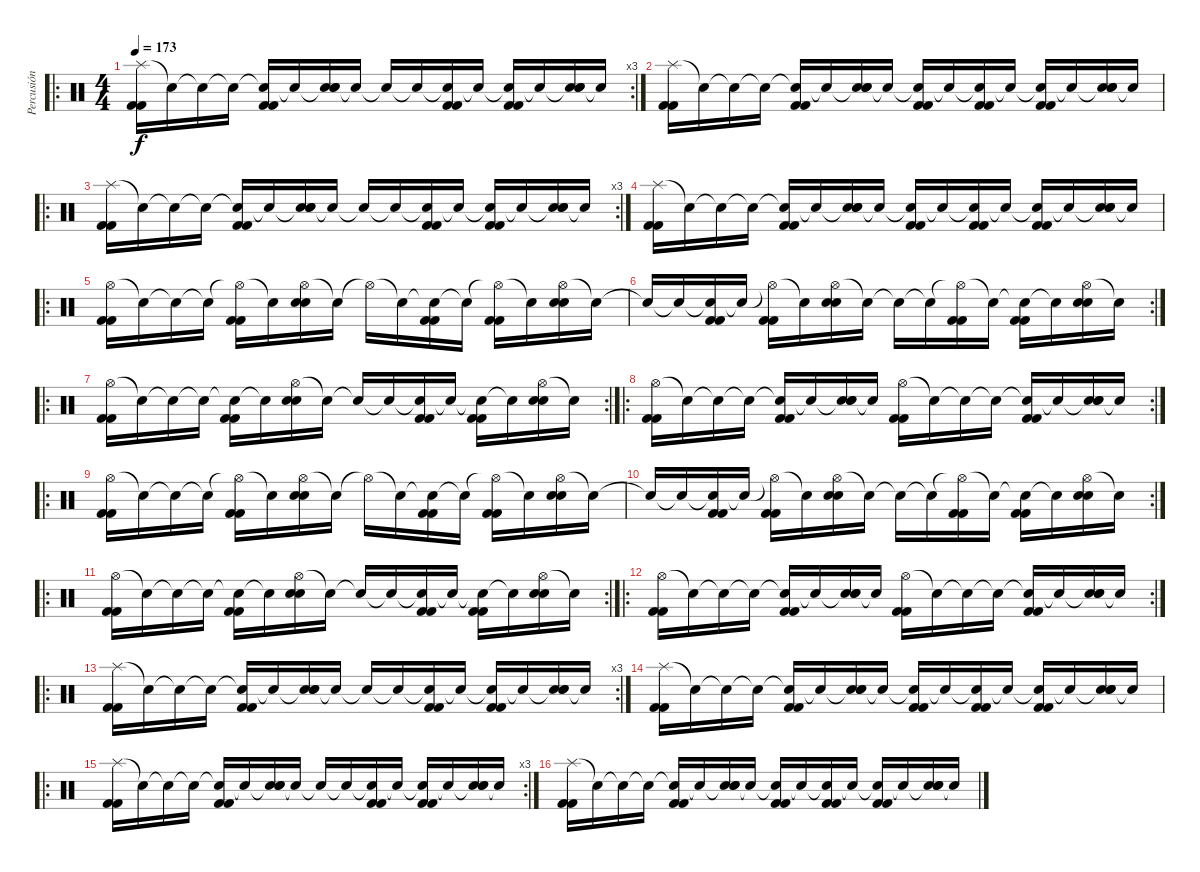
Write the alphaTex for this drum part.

\track ("Percusión" "Percusión") {instrument percussion}
\staff {score}
\articulation defaults
\ro
\rc 3
\ts (4 4)
\tempo 173
\clef neutral
\ks c
("Splash (hit)" "Kick (hit) 2" "Kick (hit) 2").16{dy f} "Snare (hit)"{t}.16 "Snare (hit)"{t}.16 "Snare (hit)"{t}.16 ("Snare (hit)"{t} "Kick (hit) 2" "Kick (hit) 2").16 "Snare (hit)"{t}.16 ("Snare (hit)"{t} "Electric Snare (hit)" "Electric Snare (hit)").16 "Snare (hit)"{t}.16 "Snare (hit)"{t}.16 "Snare (hit)"{t}.16 ("Snare (hit)"{t} "Kick (hit) 2" "Kick (hit) 2").16 "Snare (hit)"{t}.16 ("Snare (hit)"{t} "Kick (hit) 2" "Kick (hit) 2").16 "Snare (hit)"{t}.16 ("Snare (hit)"{t} "Electric Snare (hit)" "Electric Snare (hit)").16 "Snare (hit)"{t}.16 |
("Splash (hit)" "Kick (hit) 2" "Kick (hit) 2").16 "Snare (hit)"{t}.16 "Snare (hit)"{t}.16 "Snare (hit)"{t}.16 ("Snare (hit)"{t} "Kick (hit) 2" "Kick (hit) 2").16 "Snare (hit)"{t}.16 ("Snare (hit)"{t} "Electric Snare (hit)" "Electric Snare (hit)").16 "Snare (hit)"{t}.16 ("Snare (hit)"{t} "Kick (hit) 2" "Kick (hit) 2").16 "Snare (hit)"{t}.16 ("Snare (hit)"{t} "Kick (hit) 2" "Kick (hit) 2").16 "Snare (hit)"{t}.16 ("Snare (hit)"{t} "Kick (hit) 2" "Kick (hit) 2").16 "Snare (hit)"{t}.16 ("Snare (hit)"{t} "Electric Snare (hit)" "Electric Snare (hit)").16 "Snare (hit)"{t}.16 |
\ro
\rc 3
("Splash (hit)" "Kick (hit) 2" "Kick (hit) 2").16 "Snare (hit)"{t}.16 "Snare (hit)"{t}.16 "Snare (hit)"{t}.16 ("Snare (hit)"{t} "Kick (hit) 2" "Kick (hit) 2").16 "Snare (hit)"{t}.16 ("Snare (hit)"{t} "Electric Snare (hit)" "Electric Snare (hit)").16 "Snare (hit)"{t}.16 "Snare (hit)"{t}.16 "Snare (hit)"{t}.16 ("Snare (hit)"{t} "Kick (hit) 2" "Kick (hit) 2").16 "Snare (hit)"{t}.16 ("Snare (hit)"{t} "Kick (hit) 2" "Kick (hit) 2").16 "Snare (hit)"{t}.16 ("Snare (hit)"{t} "Electric Snare (hit)" "Electric Snare (hit)").16 "Snare (hit)"{t}.16 |
("Splash (hit)" "Kick (hit) 2" "Kick (hit) 2").16 "Snare (hit)"{t}.16 "Snare (hit)"{t}.16 "Snare (hit)"{t}.16 ("Snare (hit)"{t} "Kick (hit) 2" "Kick (hit) 2").16 "Snare (hit)"{t}.16 ("Snare (hit)"{t} "Electric Snare (hit)" "Electric Snare (hit)").16 "Snare (hit)"{t}.16 ("Snare (hit)"{t} "Kick (hit) 2" "Kick (hit) 2").16 "Snare (hit)"{t}.16 ("Snare (hit)"{t} "Kick (hit) 2" "Kick (hit) 2").16 "Snare (hit)"{t}.16 ("Snare (hit)"{t} "Kick (hit) 2" "Kick (hit) 2").16 "Snare (hit)"{t}.16 ("Snare (hit)"{t} "Electric Snare (hit)" "Electric Snare (hit)").16 "Snare (hit)"{t}.16 |
\ro
("Hi-Hat (open)" "Kick (hit) 2" "Kick (hit) 2").16 "Snare (hit)"{t}.16 "Snare (hit)"{t}.16 "Snare (hit)"{t}.16 ("Hi-Hat (open)"{t} "Kick (hit) 2" "Kick (hit) 2").16 "Snare (hit)"{t}.16 ("Hi-Hat (open)" "Electric Snare (hit)" "Electric Snare (hit)").16 "Snare (hit)"{t}.16 "Hi-Hat (open)"{t}.16 "Snare (hit)"{t}.16 ("Snare (hit)"{t} "Kick (hit) 2" "Kick (hit) 2").16 "Snare (hit)"{t}.16 ("Hi-Hat (open)"{t} "Kick (hit) 2" "Kick (hit) 2").16 "Snare (hit)"{t}.16 ("Hi-Hat (open)" "Electric Snare (hit)" "Electric Snare (hit)").16 "Snare (hit)"{t}.16 |
\rc 2 "Snare (hit)"{t}.16 "Snare (hit)"{t}.16
("Snare (hit)"{t} "Kick (hit) 2" "Kick (hit) 2").16 "Snare (hit)"{t}.16 ("Hi-Hat (open)"{t} "Kick (hit) 2" "Kick (hit) 2").16 "Snare (hit)"{t}.16 ("Hi-Hat (open)" "Electric Snare (hit)" "Electric Snare (hit)").16 "Snare (hit)"{t}.16 "Snare (hit)"{t}.16 "Snare (hit)"{t}.16 ("Hi-Hat (open)"{t} "Kick (hit) 2" "Kick (hit) 2").16 "Snare (hit)"{t}.16 ("Snare (hit)"{t} "Kick (hit) 2" "Kick (hit) 2").16 "Snare (hit)"{t}.16 ("Hi-Hat (open)" "Electric Snare (hit)" "Electric Snare (hit)").16 "Snare (hit)"{t}.16 |
\ro
\rc 2
("Hi-Hat (open)" "Kick (hit) 2" "Kick (hit) 2").16 "Snare (hit)"{t}.16 "Snare (hit)"{t}.16 "Snare (hit)"{t}.16 ("Snare (hit)"{t} "Kick (hit) 2" "Kick (hit) 2").16 "Snare (hit)"{t}.16 ("Hi-Hat (open)" "Electric Snare (hit)" "Electric Snare (hit)").16 "Snare (hit)"{t}.16 "Snare (hit)"{t}.16 "Snare (hit)"{t}.16 ("Snare (hit)"{t} "Kick (hit) 2" "Kick (hit) 2").16 "Snare (hit)"{t}.16 ("Snare (hit)"{t} "Kick (hit) 2" "Kick (hit) 2").16 "Snare (hit)"{t}.16 ("Hi-Hat (open)" "Electric Snare (hit)" "Electric Snare (hit)").16 "Snare (hit)"{t}.16 |
\ro
\rc 2
("Hi-Hat (open)" "Kick (hit) 2" "Kick (hit) 2").16 "Snare (hit)"{t}.16 "Snare (hit)"{t}.16 "Snare (hit)"{t}.16 ("Snare (hit)"{t} "Kick (hit) 2" "Kick (hit) 2").16 "Snare (hit)"{t}.16 ("Snare (hit)"{t} "Electric Snare (hit)" "Electric Snare (hit)").16 "Snare (hit)"{t}.16 ("Hi-Hat (open)" "Kick (hit) 2" "Kick (hit) 2").16 "Snare (hit)"{t}.16 "Snare (hit)"{t}.16 "Snare (hit)"{t}.16 ("Snare (hit)"{t} "Kick (hit) 2" "Kick (hit) 2").16 "Snare (hit)"{t}.16 ("Snare (hit)"{t} "Electric Snare (hit)" "Electric Snare (hit)").16 "Snare (hit)"{t}.16 |
\ro
("Hi-Hat (open)" "Kick (hit) 2" "Kick (hit) 2").16 "Snare (hit)"{t}.16 "Snare (hit)"{t}.16 "Snare (hit)"{t}.16 ("Hi-Hat (open)"{t} "Kick (hit) 2" "Kick (hit) 2").16 "Snare (hit)"{t}.16 ("Hi-Hat (open)" "Electric Snare (hit)" "Electric Snare (hit)").16 "Snare (hit)"{t}.16 "Hi-Hat (open)"{t}.16 "Snare (hit)"{t}.16 ("Snare (hit)"{t} "Kick (hit) 2" "Kick (hit) 2").16 "Snare (hit)"{t}.16 ("Hi-Hat (open)"{t} "Kick (hit) 2" "Kick (hit) 2").16 "Snare (hit)"{t}.16 ("Hi-Hat (open)" "Electric Snare (hit)" "Electric Snare (hit)").16 "Snare (hit)"{t}.16 |
\rc 2 "Snare (hit)"{t}.16 "Snare (hit)"{t}.16
("Snare (hit)"{t} "Kick (hit) 2" "Kick (hit) 2").16 "Snare (hit)"{t}.16 ("Hi-Hat (open)"{t} "Kick (hit) 2" "Kick (hit) 2").16 "Snare (hit)"{t}.16 ("Hi-Hat (open)" "Electric Snare (hit)" "Electric Snare (hit)").16 "Snare (hit)"{t}.16 "Snare (hit)"{t}.16 "Snare (hit)"{t}.16 ("Hi-Hat (open)"{t} "Kick (hit) 2" "Kick (hit) 2").16 "Snare (hit)"{t}.16 ("Snare (hit)"{t} "Kick (hit) 2" "Kick (hit) 2").16 "Snare (hit)"{t}.16 ("Hi-Hat (open)" "Electric Snare (hit)" "Electric Snare (hit)").16 "Snare (hit)"{t}.16 |
\ro
\rc 2
("Hi-Hat (open)" "Kick (hit) 2" "Kick (hit) 2").16 "Snare (hit)"{t}.16 "Snare (hit)"{t}.16 "Snare (hit)"{t}.16 ("Snare (hit)"{t} "Kick (hit) 2" "Kick (hit) 2").16 "Snare (hit)"{t}.16 ("Hi-Hat (open)" "Electric Snare (hit)" "Electric Snare (hit)").16 "Snare (hit)"{t}.16 "Snare (hit)"{t}.16 "Snare (hit)"{t}.16 ("Snare (hit)"{t} "Kick (hit) 2" "Kick (hit) 2").16 "Snare (hit)"{t}.16 ("Snare (hit)"{t} "Kick (hit) 2" "Kick (hit) 2").16 "Snare (hit)"{t}.16 ("Hi-Hat (open)" "Electric Snare (hit)" "Electric Snare (hit)").16 "Snare (hit)"{t}.16 |
\ro
\rc 2
("Hi-Hat (open)" "Kick (hit) 2" "Kick (hit) 2").16 "Snare (hit)"{t}.16 "Snare (hit)"{t}.16 "Snare (hit)"{t}.16 ("Snare (hit)"{t} "Kick (hit) 2" "Kick (hit) 2").16 "Snare (hit)"{t}.16 ("Snare (hit)"{t} "Electric Snare (hit)" "Electric Snare (hit)").16 "Snare (hit)"{t}.16 ("Hi-Hat (open)" "Kick (hit) 2" "Kick (hit) 2").16 "Snare (hit)"{t}.16 "Snare (hit)"{t}.16 "Snare (hit)"{t}.16 ("Snare (hit)"{t} "Kick (hit) 2" "Kick (hit) 2").16 "Snare (hit)"{t}.16 ("Snare (hit)"{t} "Electric Snare (hit)" "Electric Snare (hit)").16 "Snare (hit)"{t}.16 |
\ro
\rc 3
("Splash (hit)" "Kick (hit) 2" "Kick (hit) 2").16 "Snare (hit)"{t}.16 "Snare (hit)"{t}.16 "Snare (hit)"{t}.16 ("Snare (hit)"{t} "Kick (hit) 2" "Kick (hit) 2").16 "Snare (hit)"{t}.16 ("Snare (hit)"{t} "Electric Snare (hit)" "Electric Snare (hit)").16 "Snare (hit)"{t}.16 "Snare (hit)"{t}.16 "Snare (hit)"{t}.16 ("Snare (hit)"{t} "Kick (hit) 2" "Kick (hit) 2").16 "Snare (hit)"{t}.16 ("Snare (hit)"{t} "Kick (hit) 2" "Kick (hit) 2").16 "Snare (hit)"{t}.16 ("Snare (hit)"{t} "Electric Snare (hit)" "Electric Snare (hit)").16 "Snare (hit)"{t}.16 |
("Splash (hit)" "Kick (hit) 2" "Kick (hit) 2").16 "Snare (hit)"{t}.16 "Snare (hit)"{t}.16 "Snare (hit)"{t}.16 ("Snare (hit)"{t} "Kick (hit) 2" "Kick (hit) 2").16 "Snare (hit)"{t}.16 ("Snare (hit)"{t} "Electric Snare (hit)" "Electric Snare (hit)").16 "Snare (hit)"{t}.16 ("Snare (hit)"{t} "Kick (hit) 2" "Kick (hit) 2").16 "Snare (hit)"{t}.16 ("Snare (hit)"{t} "Kick (hit) 2" "Kick (hit) 2").16 "Snare (hit)"{t}.16 ("Snare (hit)"{t} "Kick (hit) 2" "Kick (hit) 2").16 "Snare (hit)"{t}.16 ("Snare (hit)"{t} "Electric Snare (hit)" "Electric Snare (hit)").16 "Snare (hit)"{t}.16 |
\ro
\rc 3
("Splash (hit)" "Kick (hit) 2" "Kick (hit) 2").16 "Snare (hit)"{t}.16 "Snare (hit)"{t}.16 "Snare (hit)"{t}.16 ("Snare (hit)"{t} "Kick (hit) 2" "Kick (hit) 2").16 "Snare (hit)"{t}.16 ("Snare (hit)"{t} "Electric Snare (hit)" "Electric Snare (hit)").16 "Snare (hit)"{t}.16 "Snare (hit)"{t}.16 "Snare (hit)"{t}.16 ("Snare (hit)"{t} "Kick (hit) 2" "Kick (hit) 2").16 "Snare (hit)"{t}.16 ("Snare (hit)"{t} "Kick (hit) 2" "Kick (hit) 2").16 "Snare (hit)"{t}.16 ("Snare (hit)"{t} "Electric Snare (hit)" "Electric Snare (hit)").16 "Snare (hit)"{t}.16 |
("Splash (hit)" "Kick (hit) 2" "Kick (hit) 2").16 "Snare (hit)"{t}.16 "Snare (hit)"{t}.16 "Snare (hit)"{t}.16 ("Snare (hit)"{t} "Kick (hit) 2" "Kick (hit) 2").16 "Snare (hit)"{t}.16 ("Snare (hit)"{t} "Electric Snare (hit)" "Electric Snare (hit)").16 "Snare (hit)"{t}.16 ("Snare (hit)"{t} "Kick (hit) 2" "Kick (hit) 2").16 "Snare (hit)"{t}.16 ("Snare (hit)"{t} "Kick (hit) 2" "Kick (hit) 2").16 "Snare (hit)"{t}.16 ("Snare (hit)"{t} "Kick (hit) 2" "Kick (hit) 2").16 "Snare (hit)"{t}.16 ("Snare (hit)"{t} "Electric Snare (hit)" "Electric Snare (hit)").16 "Snare (hit)"{t}.16
